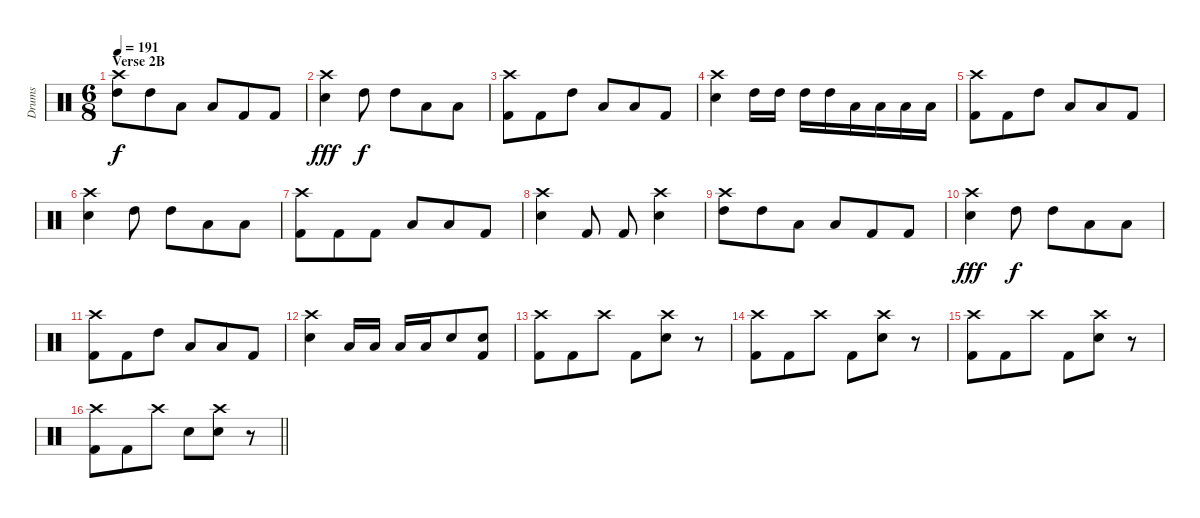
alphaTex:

\track ("Drums" "Drums") {instrument percussion}
\staff {score}
\articulation defaults
\ts (6 8)
\section ("" "Verse 2B")
\tempo 191
\clef neutral
\ks c
("Crash high (hit)" "High Tom (hit)").8{dy f} "High Tom (hit)".8 "Low Tom (hit)".8 "Low Floor Tom (hit)".8 "Kick (hit) 2".8 "Kick (hit) 2".8 |
("Crash high (hit)" "Snare (hit) 2").4{dy fff} "High Tom (hit)".8{dy f} "High Tom (hit)".8 "Low Tom (hit)".8 "Low Tom (hit)".8 |
("Crash high (hit)" "Kick (hit) 2").8 "Kick (hit) 2".8 "High Tom (hit)".8 "Low Tom (hit)".8 "Low Floor Tom (hit)".8 "Kick (hit) 2".8 |
("Crash high (hit)" "Snare (hit) 2").4 "High Tom (hit)".16 "High Tom (hit)".16 "High Tom (hit)".16 "High Tom (hit)".16 "Low Tom (hit)".16 "Low Tom (hit)".16 "Low Tom (hit)".16 "Low Tom (hit)".16 |
("Crash high (hit)" "Kick (hit) 2").8 "Kick (hit) 2".8 "High Tom (hit)".8 "Low Tom (hit)".8 "Low Floor Tom (hit)".8 "Kick (hit) 2".8 |
("Crash high (hit)" "Snare (hit) 2").4 "High Tom (hit)".8 "High Tom (hit)".8 "Low Tom (hit)".8 "Low Floor Tom (hit)".8 |
("Crash high (hit)" "Kick (hit) 2").8 "Kick (hit) 2".8 "Kick (hit) 2".8 "Low Tom (hit)".8 "Low Floor Tom (hit)".8 "Kick (hit) 2".8 |
("Crash high (hit)" "Snare (hit) 2").4 "Kick (hit) 2".8 "Kick (hit) 2".8 ("Crash high (hit)" "Snare (hit) 2").4 |
("Crash high (hit)" "High Tom (hit)").8 "High Tom (hit)".8 "Low Tom (hit)".8 "Low Floor Tom (hit)".8 "Kick (hit) 2".8 "Kick (hit) 2".8 |
("Crash high (hit)" "Snare (hit) 2").4{dy fff} "High Tom (hit)".8{dy f} "High Tom (hit)".8 "Low Tom (hit)".8 "Low Tom (hit)".8 |
("Crash high (hit)" "Kick (hit) 2").8 "Kick (hit) 2".8 "High Tom (hit)".8 "Low Tom (hit)".8 "Low Floor Tom (hit)".8 "Kick (hit) 2".8 |
("Crash high (hit)" "Snare (hit) 2").4 "Low Tom (hit)".16 "Low Tom (hit)".16 "Low Floor Tom (hit)".16 "Low Floor Tom (hit)".16 "Snare (hit) 2".8 ("Snare (hit) 2" "Kick (hit) 2").8 |
("Crash high (hit)" "Kick (hit) 2").8 "Kick (hit) 2".8 "Crash high (hit)".8 "Kick (hit) 2".8 ("Crash high (hit)" "Snare (hit) 2").8 r.8 |
("Crash high (hit)" "Kick (hit) 2").8 "Kick (hit) 2".8 "Crash high (hit)".8 "Kick (hit) 2".8 ("Crash high (hit)" "Snare (hit) 2").8 r.8 |
("Crash high (hit)" "Kick (hit) 2").8 "Kick (hit) 2".8 "Crash high (hit)".8 "Kick (hit) 2".8 ("Crash high (hit)" "Snare (hit) 2").8 r.8 |
\barLineRight lightlight
("Crash high (hit)" "Kick (hit) 2").8 "Kick (hit) 2".8 "Crash high (hit)".8 "Snare (hit) 2".8 ("Crash high (hit)" "Snare (hit) 2").8 r.8
